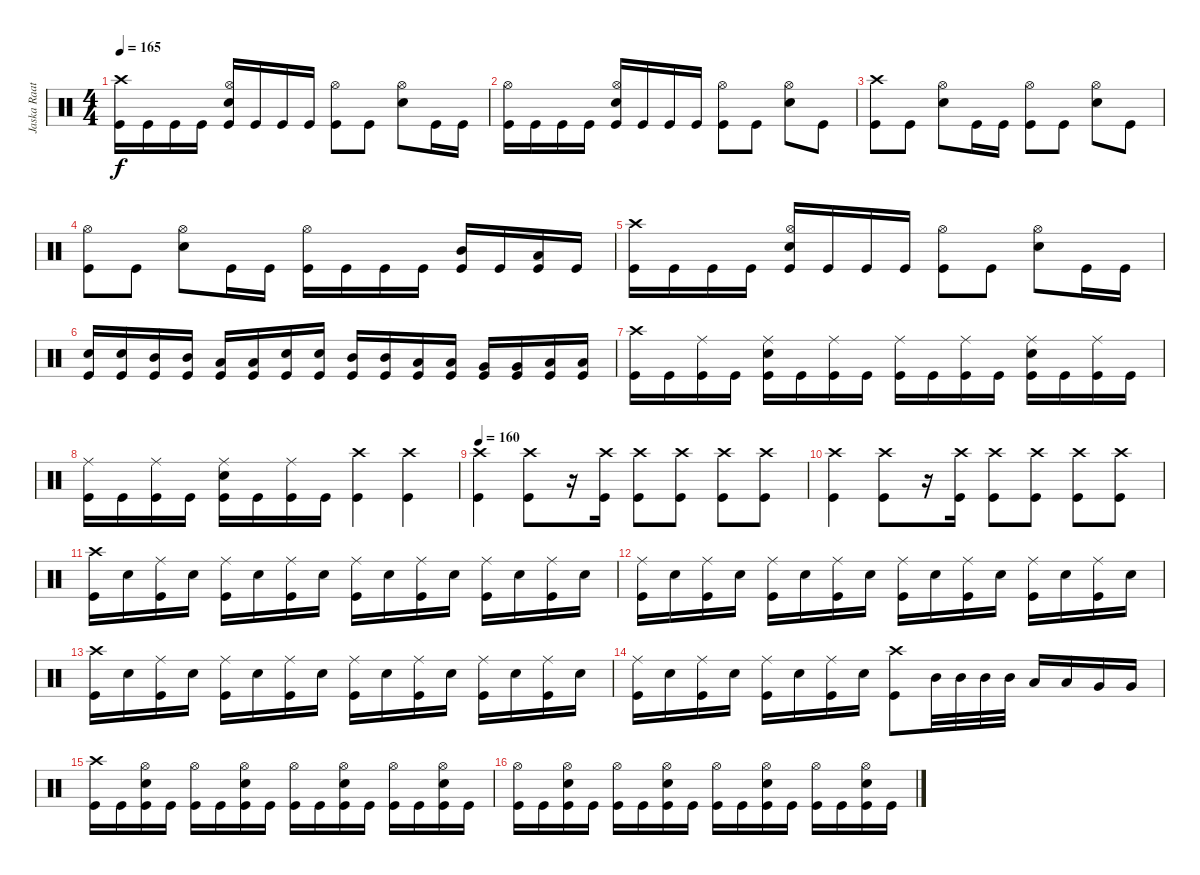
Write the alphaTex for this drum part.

\track ("Jaska Raatikainen" "Jaska Raat") {instrument percussion}
\staff {score}
\articulation defaults
\ts (4 4)
\tempo 165
\clef neutral
\ks c
("Crash high (hit)" "Kick (hit)").16{dy f} "Kick (hit)".16 "Kick (hit)".16 "Kick (hit)".16 ("Hi-Hat (open)" "Electric Snare (hit)" "Kick (hit)").16 "Kick (hit)".16 "Kick (hit)".16 "Kick (hit)".16 ("Hi-Hat (open)" "Kick (hit)").8 "Kick (hit)".8 ("Hi-Hat (open)" "Electric Snare (hit)").8 "Kick (hit)".16 "Kick (hit)".16 |
("Hi-Hat (open)" "Kick (hit)").16 "Kick (hit)".16 "Kick (hit)".16 "Kick (hit)".16 ("Hi-Hat (open)" "Electric Snare (hit)" "Kick (hit)").16 "Kick (hit)".16 "Kick (hit)".16 "Kick (hit)".16 ("Hi-Hat (open)" "Kick (hit)").8 "Kick (hit)".8 ("Hi-Hat (open)" "Electric Snare (hit)").8 "Kick (hit)".8 |
("Crash high (hit)" "Kick (hit)").8 "Kick (hit)".8 ("Hi-Hat (open)" "Electric Snare (hit)").8 "Kick (hit)".16 "Kick (hit)".16 ("Hi-Hat (open)" "Kick (hit)").8 "Kick (hit)".8 ("Hi-Hat (open)" "Electric Snare (hit)").8 "Kick (hit)".8 |
("Hi-Hat (open)" "Kick (hit)").8 "Kick (hit)".8 ("Hi-Hat (open)" "Electric Snare (hit)").8 "Kick (hit)".16 "Kick (hit)".16 ("Hi-Hat (open)" "Kick (hit)").16 "Kick (hit)".16 "Kick (hit)".16 "Kick (hit)".16 ("Mid Tom (hit)" "Kick (hit)").16 "Kick (hit)".16 ("Low Tom (hit)" "Kick (hit)").16 "Kick (hit)".16 |
("Crash high (hit)" "Kick (hit)").16 "Kick (hit)".16 "Kick (hit)".16 "Kick (hit)".16 ("Hi-Hat (open)" "Electric Snare (hit)" "Kick (hit)").16 "Kick (hit)".16 "Kick (hit)".16 "Kick (hit)".16 ("Hi-Hat (open)" "Kick (hit)").8 "Kick (hit)".8 ("Hi-Hat (open)" "Electric Snare (hit)").8 "Kick (hit)".16 "Kick (hit)".16 |
("Electric Snare (hit)" "Kick (hit)").16 ("Electric Snare (hit)" "Kick (hit)").16 ("Mid Tom (hit)" "Kick (hit)").16 ("Mid Tom (hit)" "Kick (hit)").16 ("Low Tom (hit)" "Kick (hit)").16 ("Low Tom (hit)" "Kick (hit)").16 ("Electric Snare (hit)" "Kick (hit)").16 ("Electric Snare (hit)" "Kick (hit)").16 ("Mid Tom (hit)" "Kick (hit)").16 ("Mid Tom (hit)" "Kick (hit)").16 ("Low Tom (hit)" "Kick (hit)").16 ("Low Tom (hit)" "Kick (hit)").16 ("Very Low Tom (hit)" "Kick (hit)").16 ("Very Low Tom (hit)" "Kick (hit)").16 ("Low Floor Tom (hit)" "Kick (hit)").16 ("Low Floor Tom (hit)" "Kick (hit)").16 |
("Crash high (hit)" "Kick (hit)").16 "Kick (hit)".16 ("Ride (middle)" "Kick (hit)").16 "Kick (hit)".16 ("Ride (middle)" "Electric Snare (hit)" "Kick (hit)").16 "Kick (hit)".16 ("Ride (middle)" "Kick (hit)").16 "Kick (hit)".16 ("Ride (middle)" "Kick (hit)").16 "Kick (hit)".16 ("Ride (middle)" "Kick (hit)").16 "Kick (hit)".16 ("Ride (middle)" "Electric Snare (hit)" "Kick (hit)").16 "Kick (hit)".16 ("Ride (middle)" "Kick (hit)").16 "Kick (hit)".16 |
("Ride (middle)" "Kick (hit)").16 "Kick (hit)".16 ("Ride (middle)" "Kick (hit)").16 "Kick (hit)".16 ("Ride (middle)" "Electric Snare (hit)" "Kick (hit)").16 "Kick (hit)".16 ("Ride (middle)" "Kick (hit)").16 "Kick (hit)".16 ("Crash high (hit)" "Kick (hit)").4 ("Crash high (hit)" "Kick (hit)").4 |
\tempo 160
("Crash high (hit)" "Kick (hit)").4 ("Crash high (hit)" "Kick (hit)").8 r.16 ("Crash high (hit)" "Kick (hit)").16 ("Crash high (hit)" "Kick (hit)").8 ("Crash high (hit)" "Kick (hit)").8 ("Crash high (hit)" "Kick (hit)").8 ("Crash high (hit)" "Kick (hit)").8 |
("Crash high (hit)" "Kick (hit)").4 ("Crash high (hit)" "Kick (hit)").8 r.16 ("Crash high (hit)" "Kick (hit)").16 ("Crash high (hit)" "Kick (hit)").8 ("Crash high (hit)" "Kick (hit)").8 ("Crash high (hit)" "Kick (hit)").8 ("Crash high (hit)" "Kick (hit)").8 |
("Crash high (hit)" "Kick (hit)").16 "Electric Snare (hit)".16 ("Ride (middle)" "Kick (hit)").16 "Electric Snare (hit)".16 ("Ride (middle)" "Kick (hit)").16 "Electric Snare (hit)".16 ("Ride (middle)" "Kick (hit)").16 "Electric Snare (hit)".16 ("Ride (middle)" "Kick (hit)").16 "Electric Snare (hit)".16 ("Ride (middle)" "Kick (hit)").16 "Electric Snare (hit)".16 ("Ride (middle)" "Kick (hit)").16 "Electric Snare (hit)".16 ("Ride (middle)" "Kick (hit)").16 "Electric Snare (hit)".16 |
("Ride (middle)" "Kick (hit)").16 "Electric Snare (hit)".16 ("Ride (middle)" "Kick (hit)").16 "Electric Snare (hit)".16 ("Ride (middle)" "Kick (hit)").16 "Electric Snare (hit)".16 ("Ride (middle)" "Kick (hit)").16 "Electric Snare (hit)".16 ("Ride (middle)" "Kick (hit)").16 "Electric Snare (hit)".16 ("Ride (middle)" "Kick (hit)").16 "Electric Snare (hit)".16 ("Ride (middle)" "Kick (hit)").16 "Electric Snare (hit)".16 ("Ride (middle)" "Kick (hit)").16 "Electric Snare (hit)".16 |
("Crash high (hit)" "Kick (hit)").16 "Electric Snare (hit)".16 ("Ride (middle)" "Kick (hit)").16 "Electric Snare (hit)".16 ("Ride (middle)" "Kick (hit)").16 "Electric Snare (hit)".16 ("Ride (middle)" "Kick (hit)").16 "Electric Snare (hit)".16 ("Ride (middle)" "Kick (hit)").16 "Electric Snare (hit)".16 ("Ride (middle)" "Kick (hit)").16 "Electric Snare (hit)".16 ("Ride (middle)" "Kick (hit)").16 "Electric Snare (hit)".16 ("Ride (middle)" "Kick (hit)").16 "Electric Snare (hit)".16 |
("Ride (middle)" "Kick (hit)").16 "Electric Snare (hit)".16 ("Ride (middle)" "Kick (hit)").16 "Electric Snare (hit)".16 ("Ride (middle)" "Kick (hit)").16 "Electric Snare (hit)".16 ("Ride (middle)" "Kick (hit)").16 "Electric Snare (hit)".16 ("Crash high (hit)" "Kick (hit)").8 "Mid Tom (hit)".32 "Mid Tom (hit)".32 "Mid Tom (hit)".32 "Mid Tom (hit)".32 "Low Tom (hit)".16 "Low Tom (hit)".16 "Very Low Tom (hit)".16 "Very Low Tom (hit)".16 |
("Crash high (hit)" "Kick (hit)").16 "Kick (hit)".16 ("Hi-Hat (open)" "Electric Snare (hit)" "Kick (hit)").16 "Kick (hit)".16 ("Hi-Hat (open)" "Kick (hit)").16 "Kick (hit)".16 ("Hi-Hat (open)" "Electric Snare (hit)" "Kick (hit)").16 "Kick (hit)".16 ("Hi-Hat (open)" "Kick (hit)").16 "Kick (hit)".16 ("Hi-Hat (open)" "Electric Snare (hit)" "Kick (hit)").16 "Kick (hit)".16 ("Hi-Hat (open)" "Kick (hit)").16 "Kick (hit)".16 ("Hi-Hat (open)" "Electric Snare (hit)" "Kick (hit)").16 "Kick (hit)".16 |
("Hi-Hat (open)" "Kick (hit)").16 "Kick (hit)".16 ("Hi-Hat (open)" "Electric Snare (hit)" "Kick (hit)").16 "Kick (hit)".16 ("Hi-Hat (open)" "Kick (hit)").16 "Kick (hit)".16 ("Hi-Hat (open)" "Electric Snare (hit)" "Kick (hit)").16 "Kick (hit)".16 ("Hi-Hat (open)" "Kick (hit)").16 "Kick (hit)".16 ("Hi-Hat (open)" "Electric Snare (hit)" "Kick (hit)").16 "Kick (hit)".16 ("Hi-Hat (open)" "Kick (hit)").16 "Kick (hit)".16 ("Hi-Hat (open)" "Electric Snare (hit)" "Kick (hit)").16 "Kick (hit)".16
